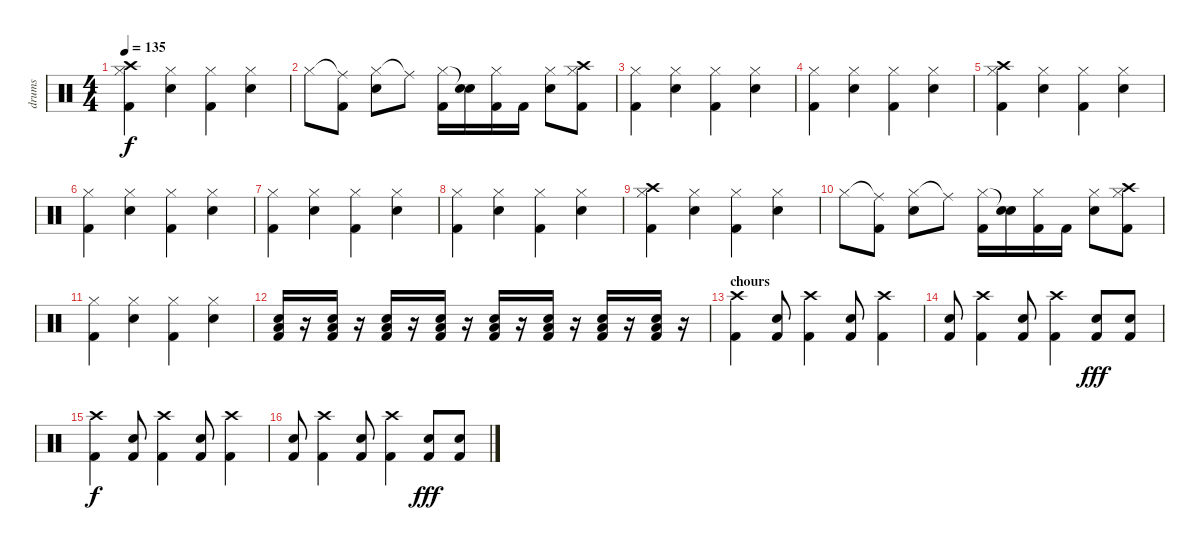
\track ("drums" "drums") {instrument percussion}
\staff {score}
\articulation defaults
\ts (4 4)
\tempo 135
\clef neutral
\ks c
("Crash high (hit)" "Hi-Hat (closed)" "Kick (hit) 2").4{dy f} ("Hi-Hat (closed)" "Electric Snare (hit)").4 ("Hi-Hat (closed)" "Kick (hit) 2").4 ("Hi-Hat (closed)" "Electric Snare (hit)").4 |
"Hi-Hat (closed)".8 ("Ride (middle)"{t} "Kick (hit) 2").8 ("Hi-Hat (closed)" "Electric Snare (hit)").8 "Ride (middle)"{t}.8 ("Hi-Hat (closed)" "Kick (hit) 2").16 ("Electric Snare (hit)"{t} "Electric Snare (hit)").16 ("Hi-Hat (closed)" "Kick (hit) 2").16 "Kick (hit) 2".16 ("Hi-Hat (closed)" "Electric Snare (hit)").8 ("Hi-Hat (closed)" "Kick (hit) 2" "Crash high (hit)").8 |
("Hi-Hat (closed)" "Kick (hit) 2").4 ("Hi-Hat (closed)" "Electric Snare (hit)").4 ("Hi-Hat (closed)" "Kick (hit) 2").4 ("Hi-Hat (closed)" "Electric Snare (hit)").4 |
("Hi-Hat (closed)" "Kick (hit) 2").4 ("Hi-Hat (closed)" "Electric Snare (hit)").4 ("Hi-Hat (closed)" "Kick (hit) 2").4 ("Hi-Hat (closed)" "Electric Snare (hit)").4 |
("Crash high (hit)" "Hi-Hat (closed)" "Kick (hit) 2").4 ("Hi-Hat (closed)" "Electric Snare (hit)").4 ("Hi-Hat (closed)" "Kick (hit) 2").4 ("Hi-Hat (closed)" "Electric Snare (hit)").4 |
("Hi-Hat (closed)" "Kick (hit) 2").4 ("Hi-Hat (closed)" "Electric Snare (hit)").4 ("Hi-Hat (closed)" "Kick (hit) 2").4 ("Hi-Hat (closed)" "Electric Snare (hit)").4 |
("Hi-Hat (closed)" "Kick (hit) 2").4 ("Hi-Hat (closed)" "Electric Snare (hit)").4 ("Hi-Hat (closed)" "Kick (hit) 2").4 ("Hi-Hat (closed)" "Electric Snare (hit)").4 |
("Hi-Hat (closed)" "Kick (hit) 2").4 ("Hi-Hat (closed)" "Electric Snare (hit)").4 ("Hi-Hat (closed)" "Kick (hit) 2").4 ("Hi-Hat (closed)" "Electric Snare (hit)").4 |
("Crash high (hit)" "Hi-Hat (closed)" "Kick (hit) 2").4 ("Hi-Hat (closed)" "Electric Snare (hit)").4 ("Hi-Hat (closed)" "Kick (hit) 2").4 ("Hi-Hat (closed)" "Electric Snare (hit)").4 |
"Hi-Hat (closed)".8 ("Ride (middle)"{t} "Kick (hit) 2").8 ("Hi-Hat (closed)" "Electric Snare (hit)").8 "Ride (middle)"{t}.8 ("Hi-Hat (closed)" "Kick (hit) 2").16 ("Electric Snare (hit)"{t} "Electric Snare (hit)").16 ("Hi-Hat (closed)" "Kick (hit) 2").16 "Kick (hit) 2".16 ("Hi-Hat (closed)" "Electric Snare (hit)").8 ("Hi-Hat (closed)" "Kick (hit) 2" "Crash high (hit)").8 |
("Hi-Hat (closed)" "Kick (hit) 2").4 ("Hi-Hat (closed)" "Electric Snare (hit)").4 ("Hi-Hat (closed)" "Kick (hit) 2").4 ("Hi-Hat (closed)" "Electric Snare (hit)").4 |
("Low Tom (hit)" "Electric Snare (hit)" "Kick (hit) 2").16 r.16 ("Low Tom (hit)" "Electric Snare (hit)" "Kick (hit) 2").16 r.16 ("Low Tom (hit)" "Electric Snare (hit)" "Kick (hit) 2").16 r.16 ("Low Tom (hit)" "Electric Snare (hit)" "Kick (hit) 2").16 r.16 ("Low Tom (hit)" "Electric Snare (hit)" "Kick (hit) 2").16 r.16 ("Low Tom (hit)" "Electric Snare (hit)" "Kick (hit) 2").16 r.16 ("Low Tom (hit)" "Electric Snare (hit)" "Kick (hit) 2").16 r.16 ("Low Tom (hit)" "Electric Snare (hit)" "Kick (hit) 2").16 r.16 |
\section ("" "chours")
("Crash high (hit)" "Kick (hit) 2").4 ("Electric Snare (hit)" "Kick (hit) 2").8 ("Crash high (hit)" "Kick (hit) 2").4 ("Electric Snare (hit)" "Kick (hit) 2").8 ("Crash high (hit)" "Kick (hit) 2").4 |
("Electric Snare (hit)" "Kick (hit) 2").8 ("Crash high (hit)" "Kick (hit) 2").4 ("Electric Snare (hit)" "Kick (hit) 2").8 ("Crash high (hit)" "Kick (hit) 2").4 ("Electric Snare (hit)" "Kick (hit) 2").8{dy fff} ("Electric Snare (hit)" "Kick (hit) 2").8 |
("Crash high (hit)" "Kick (hit) 2").4{dy f} ("Electric Snare (hit)" "Kick (hit) 2").8 ("Crash high (hit)" "Kick (hit) 2").4 ("Electric Snare (hit)" "Kick (hit) 2").8 ("Crash high (hit)" "Kick (hit) 2").4 |
("Electric Snare (hit)" "Kick (hit) 2").8 ("Crash high (hit)" "Kick (hit) 2").4 ("Electric Snare (hit)" "Kick (hit) 2").8 ("Crash high (hit)" "Kick (hit) 2").4 ("Electric Snare (hit)" "Kick (hit) 2").8{dy fff} ("Electric Snare (hit)" "Kick (hit) 2").8
